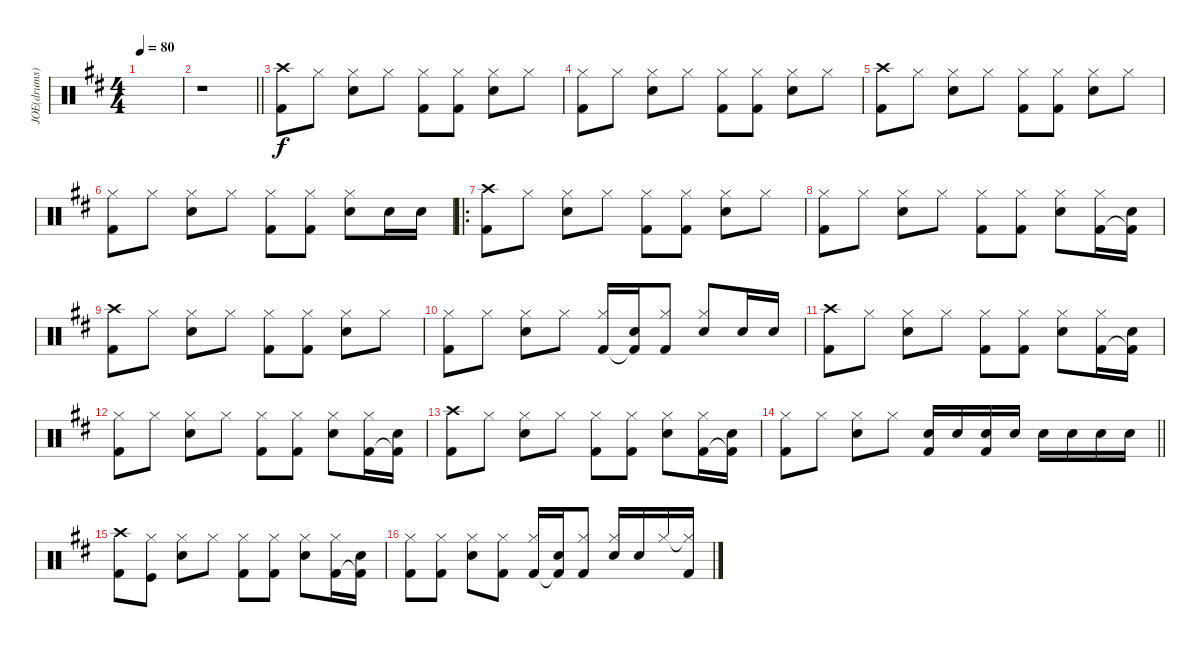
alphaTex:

\track ("JOE(drums)" "JOE(drums)") {instrument percussion}
\staff {score}
\articulation defaults
\ts (4 4)
\tempo 80
\clef neutral
\ks d
|
\barLineRight lightlight
r.1 |
\section ("" "")
("Crash high (hit)" "Kick (hit) 2").8 "Hi-Hat (closed)".8 ("Hi-Hat (closed)" "Snare (hit) 2").8 "Hi-Hat (closed)".8 ("Hi-Hat (closed)" "Kick (hit) 2").8 ("Hi-Hat (closed)" "Kick (hit) 2").8 ("Hi-Hat (closed)" "Snare (hit) 2").8 "Hi-Hat (closed)".8 |
("Hi-Hat (closed)" "Kick (hit) 2").8 "Hi-Hat (closed)".8 ("Hi-Hat (closed)" "Snare (hit) 2").8 "Hi-Hat (closed)".8 ("Hi-Hat (closed)" "Kick (hit) 2").8 ("Hi-Hat (closed)" "Kick (hit) 2").8 ("Hi-Hat (closed)" "Snare (hit) 2").8 "Hi-Hat (closed)".8 |
("Crash high (hit)" "Kick (hit) 2").8 "Hi-Hat (closed)".8 ("Hi-Hat (closed)" "Snare (hit) 2").8 "Hi-Hat (closed)".8 ("Hi-Hat (closed)" "Kick (hit) 2").8 ("Hi-Hat (closed)" "Kick (hit) 2").8 ("Hi-Hat (closed)" "Snare (hit) 2").8 "Hi-Hat (closed)".8 |
("Hi-Hat (closed)" "Kick (hit) 2").8 "Hi-Hat (closed)".8 ("Hi-Hat (closed)" "Snare (hit) 2").8 "Hi-Hat (closed)".8 ("Hi-Hat (closed)" "Kick (hit) 2").8 ("Hi-Hat (closed)" "Kick (hit) 2").8 ("Hi-Hat (closed)" "Snare (hit) 2").8 "Snare (hit) 2".16 "Snare (hit) 2".16 |
\ro
("Crash high (hit)" "Kick (hit) 2").8 "Hi-Hat (closed)".8 ("Hi-Hat (closed)" "Snare (hit) 2").8 "Hi-Hat (closed)".8 ("Hi-Hat (closed)" "Kick (hit) 2").8 ("Hi-Hat (closed)" "Kick (hit) 2").8 ("Hi-Hat (closed)" "Snare (hit) 2").8 "Hi-Hat (closed)".8 |
("Hi-Hat (closed)" "Kick (hit) 2").8 "Hi-Hat (closed)".8 ("Hi-Hat (closed)" "Snare (hit) 2").8 "Hi-Hat (closed)".8 ("Hi-Hat (closed)" "Kick (hit) 2").8 ("Hi-Hat (closed)" "Kick (hit) 2").8 ("Hi-Hat (closed)" "Snare (hit) 2").8 ("Hi-Hat (closed)" "Kick (hit) 2").16 ("Snare (hit) 2" "Kick (hit) 2"{t}).16 |
("Crash high (hit)" "Kick (hit) 2").8 "Hi-Hat (closed)".8 ("Hi-Hat (closed)" "Snare (hit) 2").8 "Hi-Hat (closed)".8 ("Hi-Hat (closed)" "Kick (hit) 2").8 ("Hi-Hat (closed)" "Kick (hit) 2").8 ("Hi-Hat (closed)" "Snare (hit) 2").8 "Hi-Hat (closed)".8 |
("Hi-Hat (closed)" "Kick (hit) 2").8 "Hi-Hat (closed)".8 ("Hi-Hat (closed)" "Snare (hit) 2").8 "Hi-Hat (closed)".8 ("Hi-Hat (closed)" "Kick (hit) 2").16 ("Snare (hit) 2" "Kick (hit) 2"{t}).16{beam Up} ("Hi-Hat (closed)" "Kick (hit) 2").8{beam Up} ("Hi-Hat (closed)" "Snare (hit) 2").8{beam Up} "Snare (hit) 2".16{beam Up} "Snare (hit) 2".16{beam Up} |
("Crash high (hit)" "Kick (hit) 2").8 "Hi-Hat (closed)".8 ("Hi-Hat (closed)" "Snare (hit) 2").8 "Hi-Hat (closed)".8 ("Hi-Hat (closed)" "Kick (hit) 2").8 ("Hi-Hat (closed)" "Kick (hit) 2").8 ("Hi-Hat (closed)" "Snare (hit) 2").8 ("Hi-Hat (closed)" "Kick (hit) 2").16 ("Snare (hit) 2" "Kick (hit) 2"{t}).16 |
("Hi-Hat (closed)" "Kick (hit) 2").8 "Hi-Hat (closed)".8 ("Hi-Hat (closed)" "Snare (hit) 2").8 "Hi-Hat (closed)".8 ("Hi-Hat (closed)" "Kick (hit) 2").8 ("Hi-Hat (closed)" "Kick (hit) 2").8 ("Hi-Hat (closed)" "Snare (hit) 2").8 ("Hi-Hat (closed)" "Kick (hit) 2").16 ("Snare (hit) 2" "Kick (hit) 2"{t}).16 |
("Crash high (hit)" "Kick (hit) 2").8 "Hi-Hat (closed)".8 ("Hi-Hat (closed)" "Snare (hit) 2").8 "Hi-Hat (closed)".8 ("Hi-Hat (closed)" "Kick (hit) 2").8 ("Hi-Hat (closed)" "Kick (hit) 2").8 ("Hi-Hat (closed)" "Snare (hit) 2").8 ("Hi-Hat (closed)" "Kick (hit) 2").16 ("Snare (hit) 2" "Kick (hit) 2"{t}).16 |
\barLineRight lightlight
("Hi-Hat (closed)" "Kick (hit) 2").8 "Hi-Hat (closed)".8 ("Hi-Hat (closed)" "Snare (hit) 2").8 "Hi-Hat (closed)".8 ("Snare (hit) 2" "Kick (hit) 2").16 "Snare (hit) 2".16 ("Snare (hit) 2" "Kick (hit) 2").16 "Snare (hit) 2".16 "Snare (hit) 2".16 "Snare (hit) 2".16 "Snare (hit) 2".16 "Snare (hit) 2".16 |
\section ("" "")
("Crash high (hit)" "Kick (hit) 2").8 ("Hi-Hat (closed)" "Kick (hit)").8 ("Hi-Hat (closed)" "Snare (hit) 2").8 "Hi-Hat (closed)".8 ("Hi-Hat (closed)" "Kick (hit) 2").8 ("Hi-Hat (closed)" "Kick (hit) 2").8 ("Snare (hit) 2" "Hi-Hat (closed)").8 ("Hi-Hat (closed)" "Kick (hit) 2").16 ("Snare (hit) 2" "Kick (hit) 2"{t}).16 |
("Hi-Hat (closed)" "Kick (hit) 2").8 ("Hi-Hat (closed)" "Kick (hit) 2").8 ("Hi-Hat (closed)" "Snare (hit) 2").8 ("Hi-Hat (closed)" "Kick (hit) 2").8 ("Hi-Hat (closed)" "Kick (hit) 2").16 ("Snare (hit) 2" "Kick (hit) 2"{t}).16{beam Up} ("Hi-Hat (closed)" "Kick (hit) 2").8{beam Up} ("Hi-Hat (closed)" "Snare (hit) 2").16{beam Up} "Snare (hit) 2".16{beam Up} "Hi-Hat (closed)".16{beam Up} ("Hi-Hat (closed)"{t} "Kick (hit) 2").16{beam Up}
